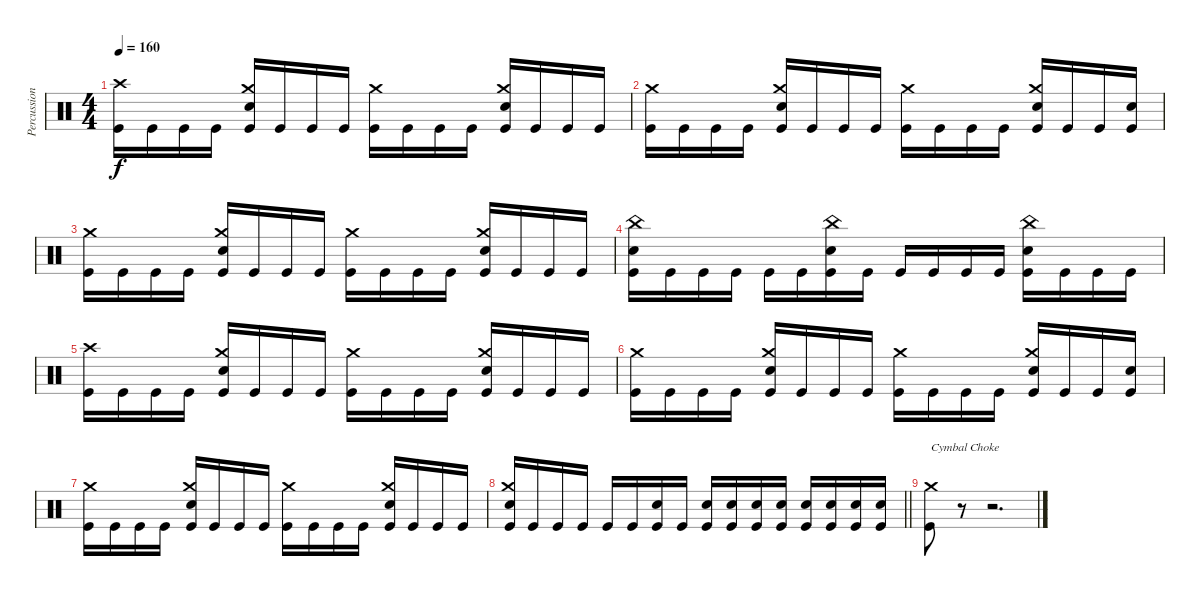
\track ("Percussion" "Percussion") {instrument percussion}
\staff {score}
\articulation defaults
\ts (4 4)
\tempo 160
\clef neutral
\ks c
("Crash high (hit)" "Kick (hit)").16{dy f} "Kick (hit)".16 "Kick (hit)".16 "Kick (hit)".16 ("Crash medium (hit)" "Electric Snare (hit)" "Kick (hit)").16 "Kick (hit)".16 "Kick (hit)".16 "Kick (hit)".16 ("Crash medium (hit)" "Kick (hit)").16 "Kick (hit)".16 "Kick (hit)".16 "Kick (hit)".16 ("Crash medium (hit)" "Electric Snare (hit)" "Kick (hit)").16 "Kick (hit)".16 "Kick (hit)".16 "Kick (hit)".16 |
("Crash medium (hit)" "Kick (hit)").16 "Kick (hit)".16 "Kick (hit)".16 "Kick (hit)".16 ("Crash medium (hit)" "Electric Snare (hit)" "Kick (hit)").16 "Kick (hit)".16 "Kick (hit)".16 "Kick (hit)".16 ("Crash medium (hit)" "Kick (hit)").16 "Kick (hit)".16 "Kick (hit)".16 "Kick (hit)".16 ("Crash medium (hit)" "Electric Snare (hit)" "Kick (hit)").16 "Kick (hit)".16 "Kick (hit)".16 ("Electric Snare (hit)" "Kick (hit)").16 |
("Crash medium (hit)" "Kick (hit)").16 "Kick (hit)".16 "Kick (hit)".16 "Kick (hit)".16 ("Crash medium (hit)" "Electric Snare (hit)" "Kick (hit)").16 "Kick (hit)".16 "Kick (hit)".16 "Kick (hit)".16 ("Crash medium (hit)" "Kick (hit)").16 "Kick (hit)".16 "Kick (hit)".16 "Kick (hit)".16 ("Crash medium (hit)" "Electric Snare (hit)" "Kick (hit)").16 "Kick (hit)".16 "Kick (hit)".16 "Kick (hit)".16 |
("China (hit)" "Electric Snare (hit)" "Kick (hit)").16 "Kick (hit)".16 "Kick (hit)".16 "Kick (hit)".16 "Kick (hit)".16 "Kick (hit)".16 ("China (hit)" "Electric Snare (hit)" "Kick (hit)").16 "Kick (hit)".16 "Kick (hit)".16 "Kick (hit)".16 "Kick (hit)".16 "Kick (hit)".16 ("China (hit)" "Electric Snare (hit)" "Kick (hit)").16 "Kick (hit)".16 "Kick (hit)".16 "Kick (hit)".16 |
("Crash high (hit)" "Kick (hit)").16 "Kick (hit)".16 "Kick (hit)".16 "Kick (hit)".16 ("Crash medium (hit)" "Electric Snare (hit)" "Kick (hit)").16 "Kick (hit)".16 "Kick (hit)".16 "Kick (hit)".16 ("Crash medium (hit)" "Kick (hit)").16 "Kick (hit)".16 "Kick (hit)".16 "Kick (hit)".16 ("Crash medium (hit)" "Electric Snare (hit)" "Kick (hit)").16 "Kick (hit)".16 "Kick (hit)".16 "Kick (hit)".16 |
("Crash medium (hit)" "Kick (hit)").16 "Kick (hit)".16 "Kick (hit)".16 "Kick (hit)".16 ("Crash medium (hit)" "Electric Snare (hit)" "Kick (hit)").16 "Kick (hit)".16 "Kick (hit)".16 "Kick (hit)".16 ("Crash medium (hit)" "Kick (hit)").16 "Kick (hit)".16 "Kick (hit)".16 "Kick (hit)".16 ("Crash medium (hit)" "Electric Snare (hit)" "Kick (hit)").16 "Kick (hit)".16 "Kick (hit)".16 ("Electric Snare (hit)" "Kick (hit)").16 |
("Crash medium (hit)" "Kick (hit)").16 "Kick (hit)".16 "Kick (hit)".16 "Kick (hit)".16 ("Crash medium (hit)" "Electric Snare (hit)" "Kick (hit)").16 "Kick (hit)".16 "Kick (hit)".16 "Kick (hit)".16 ("Crash medium (hit)" "Kick (hit)").16 "Kick (hit)".16 "Kick (hit)".16 "Kick (hit)".16 ("Crash medium (hit)" "Electric Snare (hit)" "Kick (hit)").16 "Kick (hit)".16 "Kick (hit)".16 "Kick (hit)".16 |
\barLineRight lightlight
("Crash medium (hit)" "Electric Snare (hit)" "Kick (hit)").16 "Kick (hit)".16 "Kick (hit)".16 "Kick (hit)".16 "Kick (hit)".16 "Kick (hit)".16 ("Electric Snare (hit)" "Kick (hit)").16 "Kick (hit)".16 ("Electric Snare (hit)" "Kick (hit)").16 ("Electric Snare (hit)" "Kick (hit)").16 ("Electric Snare (hit)" "Kick (hit)").16 ("Electric Snare (hit)" "Kick (hit)").16 ("Electric Snare (hit)" "Kick (hit)").16 ("Electric Snare (hit)" "Kick (hit)").16 ("Electric Snare (hit)" "Kick (hit)").16 ("Electric Snare (hit)" "Kick (hit)").16 |
\section ("" "")
("Crash medium (hit)" "Kick (hit)").8{txt "Cymbal Choke"} r.8{volume 0} r.2{d}
